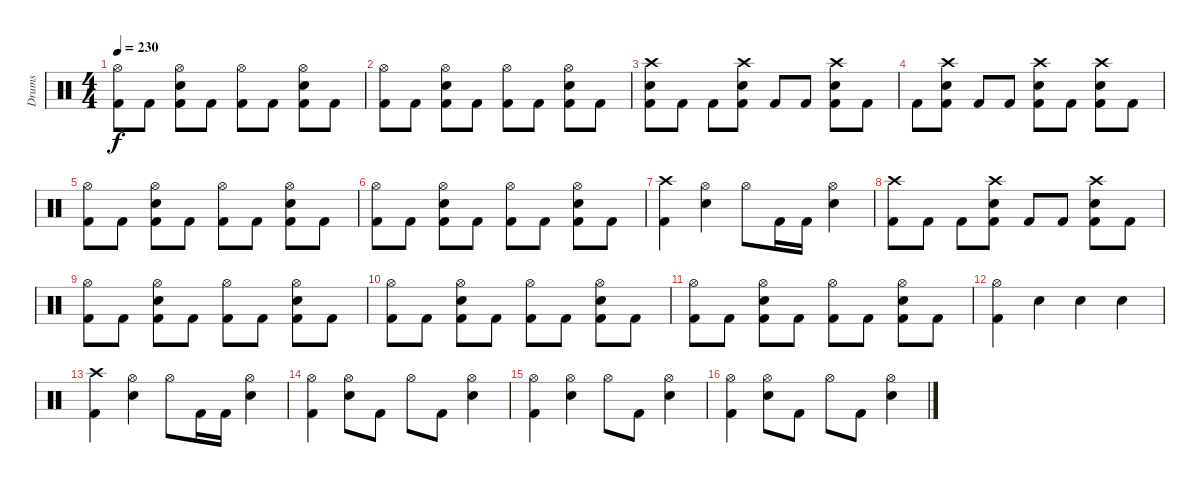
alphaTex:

\track ("Drums" "Drums") {instrument percussion}
\staff {score}
\articulation defaults
\ts (4 4)
\tempo 230
\clef neutral
\ks c
("Hi-Hat (open)" "Kick (hit) 2").8{dy f} "Kick (hit) 2".8 ("Hi-Hat (open)" "Electric Snare (hit)" "Kick (hit) 2").8 "Kick (hit) 2".8 ("Hi-Hat (open)" "Kick (hit) 2").8 "Kick (hit) 2".8 ("Hi-Hat (open)" "Electric Snare (hit)" "Kick (hit) 2").8 "Kick (hit) 2".8 |
("Hi-Hat (open)" "Kick (hit) 2").8 "Kick (hit) 2".8 ("Hi-Hat (open)" "Electric Snare (hit)" "Kick (hit) 2").8 "Kick (hit) 2".8 ("Hi-Hat (open)" "Kick (hit) 2").8 "Kick (hit) 2".8 ("Hi-Hat (open)" "Electric Snare (hit)" "Kick (hit) 2").8 "Kick (hit) 2".8 |
("Crash high (hit)" "Electric Snare (hit)" "Kick (hit) 2").8 "Kick (hit) 2".8 "Kick (hit) 2".8 ("Crash high (hit)" "Electric Snare (hit)" "Kick (hit) 2").8 "Kick (hit) 2".8 "Kick (hit) 2".8 ("Crash high (hit)" "Electric Snare (hit)" "Kick (hit) 2").8 "Kick (hit) 2".8 |
"Kick (hit) 2".8 ("Crash high (hit)" "Electric Snare (hit)" "Kick (hit) 2").8 "Kick (hit) 2".8 "Kick (hit) 2".8 ("Crash high (hit)" "Electric Snare (hit)" "Kick (hit) 2").8 "Kick (hit) 2".8 ("Crash high (hit)" "Electric Snare (hit)" "Kick (hit) 2").8 "Kick (hit) 2".8 |
("Hi-Hat (open)" "Kick (hit) 2").8 "Kick (hit) 2".8 ("Hi-Hat (open)" "Electric Snare (hit)" "Kick (hit) 2").8 "Kick (hit) 2".8 ("Hi-Hat (open)" "Kick (hit) 2").8 "Kick (hit) 2".8 ("Hi-Hat (open)" "Electric Snare (hit)" "Kick (hit) 2").8 "Kick (hit) 2".8 |
("Hi-Hat (open)" "Kick (hit) 2").8 "Kick (hit) 2".8 ("Hi-Hat (open)" "Electric Snare (hit)" "Kick (hit) 2").8 "Kick (hit) 2".8 ("Hi-Hat (open)" "Kick (hit) 2").8 "Kick (hit) 2".8 ("Hi-Hat (open)" "Electric Snare (hit)" "Kick (hit) 2").8 "Kick (hit) 2".8 |
("Crash high (hit)" "Kick (hit) 2").4 ("Hi-Hat (open)" "Electric Snare (hit)").4 "Hi-Hat (open)".8 "Kick (hit) 2".16 "Kick (hit) 2".16 ("Hi-Hat (open)" "Electric Snare (hit)").4 |
("Crash high (hit)" "Kick (hit) 2").8 "Kick (hit) 2".8 "Kick (hit) 2".8 ("Crash high (hit)" "Electric Snare (hit)" "Kick (hit) 2").8 "Kick (hit) 2".8 "Kick (hit) 2".8 ("Crash high (hit)" "Electric Snare (hit)" "Kick (hit) 2").8 "Kick (hit) 2".8 |
("Hi-Hat (open)" "Kick (hit) 2").8 "Kick (hit) 2".8 ("Hi-Hat (open)" "Electric Snare (hit)" "Kick (hit) 2").8 "Kick (hit) 2".8 ("Hi-Hat (open)" "Kick (hit) 2").8 "Kick (hit) 2".8 ("Hi-Hat (open)" "Electric Snare (hit)" "Kick (hit) 2").8 "Kick (hit) 2".8 |
("Hi-Hat (open)" "Kick (hit) 2").8 "Kick (hit) 2".8 ("Hi-Hat (open)" "Electric Snare (hit)" "Kick (hit) 2").8 "Kick (hit) 2".8 ("Hi-Hat (open)" "Kick (hit) 2").8 "Kick (hit) 2".8 ("Hi-Hat (open)" "Electric Snare (hit)" "Kick (hit) 2").8 "Kick (hit) 2".8 |
("Hi-Hat (open)" "Kick (hit) 2").8 "Kick (hit) 2".8 ("Hi-Hat (open)" "Electric Snare (hit)" "Kick (hit) 2").8 "Kick (hit) 2".8 ("Hi-Hat (open)" "Kick (hit) 2").8 "Kick (hit) 2".8 ("Hi-Hat (open)" "Electric Snare (hit)" "Kick (hit) 2").8 "Kick (hit) 2".8 |
("Hi-Hat (open)" "Kick (hit) 2").4 "Electric Snare (hit)".4 "Electric Snare (hit)".4 "Electric Snare (hit)".4 |
("Crash high (hit)" "Kick (hit) 2").4 ("Hi-Hat (open)" "Electric Snare (hit)").4 "Hi-Hat (open)".8 "Kick (hit) 2".16 "Kick (hit) 2".16 ("Hi-Hat (open)" "Electric Snare (hit)").4 |
("Hi-Hat (open)" "Kick (hit) 2").4 ("Hi-Hat (open)" "Electric Snare (hit)").8 "Kick (hit) 2".8 "Hi-Hat (open)".8 "Kick (hit) 2".8 ("Hi-Hat (open)" "Electric Snare (hit)").4 |
("Hi-Hat (open)" "Kick (hit) 2").4 ("Hi-Hat (open)" "Electric Snare (hit)").4 "Hi-Hat (open)".8 "Kick (hit) 2".8 ("Hi-Hat (open)" "Electric Snare (hit)").4 |
("Hi-Hat (open)" "Kick (hit) 2").4 ("Hi-Hat (open)" "Electric Snare (hit)").8 "Kick (hit) 2".8 "Hi-Hat (open)".8 "Kick (hit) 2".8 ("Hi-Hat (open)" "Electric Snare (hit)").4
